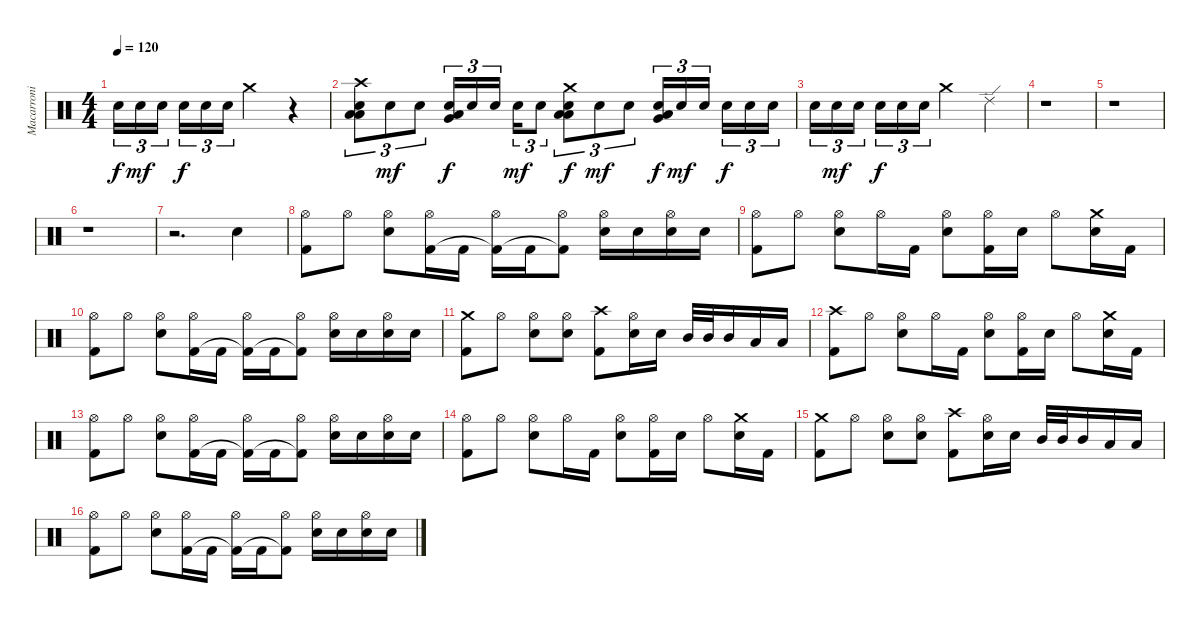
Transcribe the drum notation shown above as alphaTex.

\track ("Macarroni" "Macarroni") {instrument percussion}
\staff {score}
\articulation defaults
\ts (4 4)
\tempo 120
\clef neutral
\ks c "Electric Snare (hit)".16{tu (3 2) dy f} "Electric Snare (hit)".16{tu (3 2) dy mf} "Electric Snare (hit)".16{tu (3 2)} "Electric Snare (hit)".16{tu (3 2) dy f} "Electric Snare (hit)".16{tu (3 2)} "Electric Snare (hit)".16{tu (3 2)} "Crash medium (hit)".2
r.4 |
("Crash high (hit)" "Electric Snare (hit)" "Low Tom (hit)" "Low Floor Tom (hit)").8{tu (3 2)} "Electric Snare (hit)".8{tu (3 2) dy mf} "Electric Snare (hit)".8{tu (3 2)} ("Electric Snare (hit)" "Very Low Tom (hit)" "Low Floor Tom (hit)").16{tu (3 2) dy f} "Electric Snare (hit)".16{tu (3 2)} "Electric Snare (hit)".16{tu (3 2)} "Electric Snare (hit)".16{tu (3 2) dy mf} "Electric Snare (hit)".8{tu (3 2)} ("Crash medium (hit)" "Electric Snare (hit)" "Low Tom (hit)" "Low Floor Tom (hit)").8{tu (3 2) dy f} "Electric Snare (hit)".8{tu (3 2) dy mf} "Electric Snare (hit)".8{tu (3 2)} ("Electric Snare (hit)" "Very Low Tom (hit)" "Low Floor Tom (hit)").16{tu (3 2) dy f} "Electric Snare (hit)".16{tu (3 2) dy mf} "Electric Snare (hit)".16{tu (3 2)} "Electric Snare (hit)".16{tu (3 2) dy f} "Electric Snare (hit)".16{tu (3 2)} "Electric Snare (hit)".16{tu (3 2)} |
"Electric Snare (hit)".16{tu (3 2)} "Electric Snare (hit)".16{tu (3 2) dy mf} "Electric Snare (hit)".16{tu (3 2)} "Electric Snare (hit)".16{tu (3 2) dy f} "Electric Snare (hit)".16{tu (3 2)} "Electric Snare (hit)".16{tu (3 2)} "Crash medium (hit)".2 "Ride (edge) 2".4 |
r.1 |
r.1 |
r.1 |
r.2{d} "Electric Snare (hit)".4 |
("Hi-Hat (open)" "Kick (hit) 2").8 "Hi-Hat (open)".8 ("Hi-Hat (open)" "Electric Snare (hit)").8 ("Hi-Hat (open)" "Kick (hit) 2").16 "Kick (hit) 2".16 ("Hi-Hat (open)" "Kick (hit) 2"{t}).16 "Kick (hit) 2".16 ("Hi-Hat (open)" "Kick (hit) 2"{t}).8 ("Hi-Hat (open)" "Electric Snare (hit)").16 "Electric Snare (hit)".16 ("Hi-Hat (open)" "Electric Snare (hit)").16 "Electric Snare (hit)".16 |
("Hi-Hat (open)" "Kick (hit) 2").8 "Hi-Hat (open)".8 ("Hi-Hat (open)" "Electric Snare (hit)").8 "Hi-Hat (open)".16 "Kick (hit) 2".16 ("Hi-Hat (open)" "Electric Snare (hit)").8 ("Hi-Hat (open)" "Kick (hit) 2").16 "Electric Snare (hit)".16 "Hi-Hat (open)".8 ("Crash medium (hit)" "Electric Snare (hit)").16 "Kick (hit) 2".16 |
("Hi-Hat (open)" "Kick (hit) 2").8 "Hi-Hat (open)".8 ("Hi-Hat (open)" "Electric Snare (hit)").8 ("Hi-Hat (open)" "Kick (hit) 2").16 "Kick (hit) 2".16 ("Hi-Hat (open)" "Kick (hit) 2"{t}).16 "Kick (hit) 2".16 ("Hi-Hat (open)" "Kick (hit) 2"{t}).8 ("Hi-Hat (open)" "Electric Snare (hit)").16 "Electric Snare (hit)".16 ("Hi-Hat (open)" "Electric Snare (hit)").16 "Electric Snare (hit)".16 |
("Crash medium (hit)" "Kick (hit) 2").8 "Hi-Hat (open)".8 ("Hi-Hat (open)" "Electric Snare (hit)").8 ("Hi-Hat (open)" "Electric Snare (hit)").8 ("Crash high (hit)" "Kick (hit) 2").8 ("Hi-Hat (open)" "Electric Snare (hit)").16 "Electric Snare (hit)".16 "Mid Tom (hit)".32 "Mid Tom (hit)".32 "Mid Tom (hit)".16 "Low Tom (hit)".16 "Low Tom (hit)".16 |
("Crash high (hit)" "Kick (hit) 2").8 "Hi-Hat (open)".8 ("Hi-Hat (open)" "Electric Snare (hit)").8 "Hi-Hat (open)".16 "Kick (hit) 2".16 ("Hi-Hat (open)" "Electric Snare (hit)").8 ("Hi-Hat (open)" "Kick (hit) 2").16 "Electric Snare (hit)".16 "Hi-Hat (open)".8 ("Crash medium (hit)" "Electric Snare (hit)").16 "Kick (hit) 2".16 |
("Hi-Hat (open)" "Kick (hit) 2").8 "Hi-Hat (open)".8 ("Hi-Hat (open)" "Electric Snare (hit)").8 ("Hi-Hat (open)" "Kick (hit) 2").16 "Kick (hit) 2".16 ("Hi-Hat (open)" "Kick (hit) 2"{t}).16 "Kick (hit) 2".16 ("Hi-Hat (open)" "Kick (hit) 2"{t}).8 ("Hi-Hat (open)" "Electric Snare (hit)").16 "Electric Snare (hit)".16 ("Hi-Hat (open)" "Electric Snare (hit)").16 "Electric Snare (hit)".16 |
("Hi-Hat (open)" "Kick (hit) 2").8 "Hi-Hat (open)".8 ("Hi-Hat (open)" "Electric Snare (hit)").8 "Hi-Hat (open)".16 "Kick (hit) 2".16 ("Hi-Hat (open)" "Electric Snare (hit)").8 ("Hi-Hat (open)" "Kick (hit) 2").16 "Electric Snare (hit)".16 "Hi-Hat (open)".8 ("Crash medium (hit)" "Electric Snare (hit)").16 "Kick (hit) 2".16 |
("Crash medium (hit)" "Kick (hit) 2").8 "Hi-Hat (open)".8 ("Hi-Hat (open)" "Electric Snare (hit)").8 ("Hi-Hat (open)" "Electric Snare (hit)").8 ("Crash high (hit)" "Kick (hit) 2").8 ("Hi-Hat (open)" "Electric Snare (hit)").16 "Electric Snare (hit)".16 "Mid Tom (hit)".32 "Mid Tom (hit)".32 "Mid Tom (hit)".16 "Low Tom (hit)".16 "Low Tom (hit)".16 |
("Hi-Hat (open)" "Kick (hit) 2").8 "Hi-Hat (open)".8 ("Hi-Hat (open)" "Electric Snare (hit)").8 ("Hi-Hat (open)" "Kick (hit) 2").16 "Kick (hit) 2".16 ("Hi-Hat (open)" "Kick (hit) 2"{t}).16 "Kick (hit) 2".16 ("Hi-Hat (open)" "Kick (hit) 2"{t}).8 ("Hi-Hat (open)" "Electric Snare (hit)").16 "Electric Snare (hit)".16 ("Hi-Hat (open)" "Electric Snare (hit)").16 "Electric Snare (hit)".16
